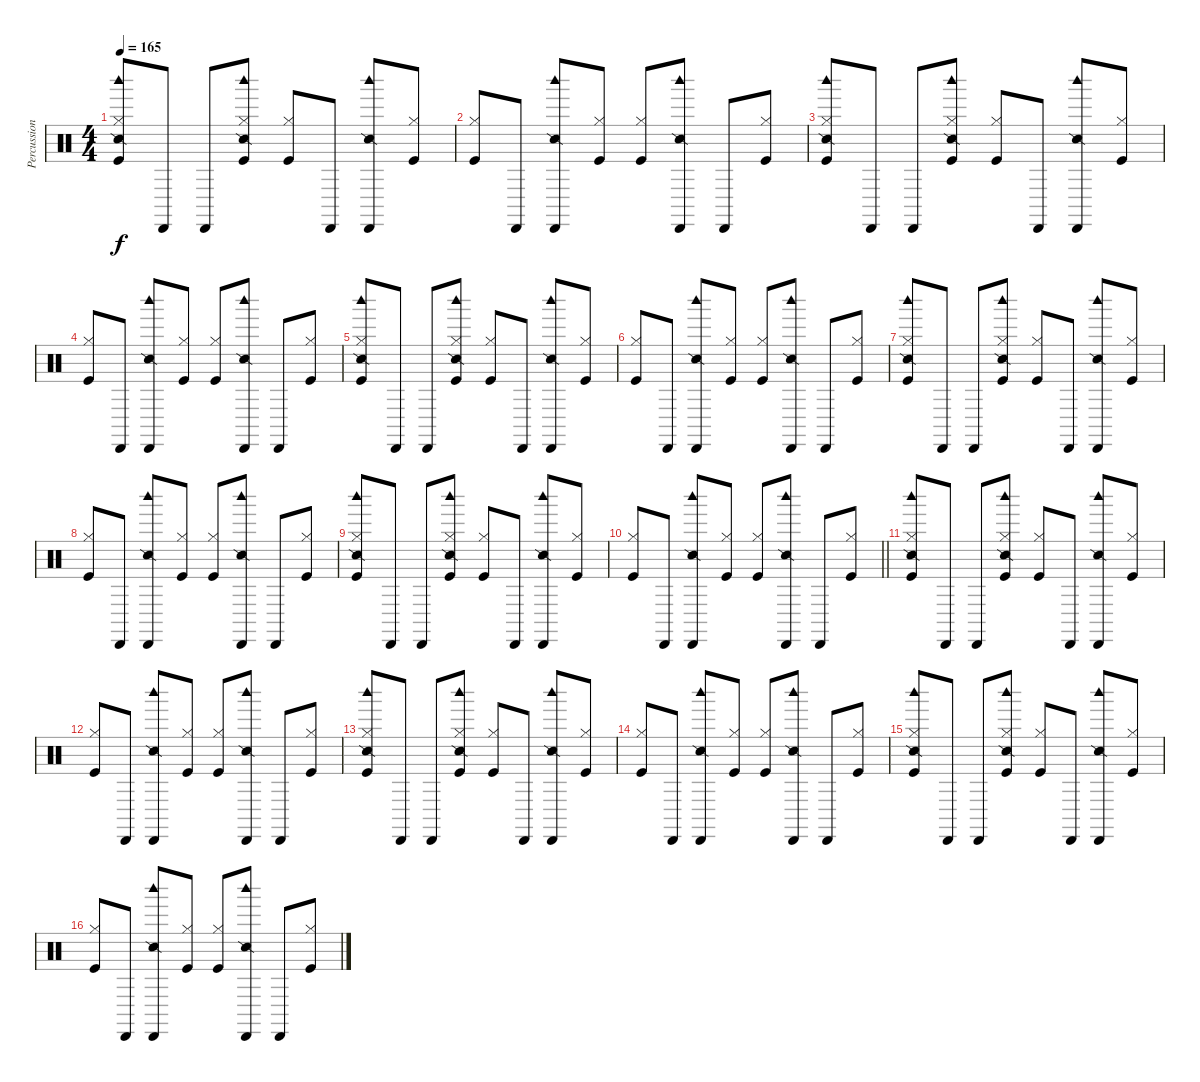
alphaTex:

\track ("Percussion" "Percussion") {instrument percussion}
\staff {score}
\articulation defaults
\ts (4 4)
\tempo 165
\clef neutral
\ks c
("Snare (side stick) 2" "Hi-Hat (closed)" "Woodblock high (hit)" "Kick (hit)").8{dy f} "Cabasa (hit)".8 "Cabasa (hit)".8 ("Snare (side stick) 2" "Hi-Hat (closed)" "Woodblock high (hit)" "Kick (hit)").8 ("Hi-Hat (closed)" "Kick (hit)").8 "Cabasa (hit)".8 ("Snare (side stick) 2" "Cabasa (hit)" "Woodblock high (hit)").8 ("Hi-Hat (closed)" "Kick (hit)").8 |
("Hi-Hat (closed)" "Kick (hit)").8 "Cabasa (hit)".8 ("Snare (side stick) 2" "Cabasa (hit)" "Woodblock high (hit)").8 ("Hi-Hat (closed)" "Kick (hit)").8 ("Hi-Hat (closed)" "Kick (hit)").8 ("Snare (side stick) 2" "Cabasa (hit)" "Woodblock high (hit)").8 "Cabasa (hit)".8 ("Hi-Hat (closed)" "Kick (hit)").8 |
("Snare (side stick) 2" "Hi-Hat (closed)" "Woodblock high (hit)" "Kick (hit)").8 "Cabasa (hit)".8 "Cabasa (hit)".8 ("Snare (side stick) 2" "Hi-Hat (closed)" "Woodblock high (hit)" "Kick (hit)").8 ("Hi-Hat (closed)" "Kick (hit)").8 "Cabasa (hit)".8 ("Snare (side stick) 2" "Cabasa (hit)" "Woodblock high (hit)").8 ("Hi-Hat (closed)" "Kick (hit)").8 |
("Hi-Hat (closed)" "Kick (hit)").8 "Cabasa (hit)".8 ("Snare (side stick) 2" "Cabasa (hit)" "Woodblock high (hit)").8 ("Hi-Hat (closed)" "Kick (hit)").8 ("Hi-Hat (closed)" "Kick (hit)").8 ("Snare (side stick) 2" "Cabasa (hit)" "Woodblock high (hit)").8 "Cabasa (hit)".8 ("Hi-Hat (closed)" "Kick (hit)").8 |
("Snare (side stick) 2" "Hi-Hat (closed)" "Woodblock high (hit)" "Kick (hit)").8 "Cabasa (hit)".8 "Cabasa (hit)".8 ("Snare (side stick) 2" "Hi-Hat (closed)" "Woodblock high (hit)" "Kick (hit)").8 ("Hi-Hat (closed)" "Kick (hit)").8 "Cabasa (hit)".8 ("Snare (side stick) 2" "Cabasa (hit)" "Woodblock high (hit)").8 ("Hi-Hat (closed)" "Kick (hit)").8 |
("Hi-Hat (closed)" "Kick (hit)").8 "Cabasa (hit)".8 ("Snare (side stick) 2" "Cabasa (hit)" "Woodblock high (hit)").8 ("Hi-Hat (closed)" "Kick (hit)").8 ("Hi-Hat (closed)" "Kick (hit)").8 ("Snare (side stick) 2" "Cabasa (hit)" "Woodblock high (hit)").8 "Cabasa (hit)".8 ("Hi-Hat (closed)" "Kick (hit)").8 |
("Snare (side stick) 2" "Hi-Hat (closed)" "Woodblock high (hit)" "Kick (hit)").8 "Cabasa (hit)".8 "Cabasa (hit)".8 ("Snare (side stick) 2" "Hi-Hat (closed)" "Woodblock high (hit)" "Kick (hit)").8 ("Hi-Hat (closed)" "Kick (hit)").8 "Cabasa (hit)".8 ("Snare (side stick) 2" "Cabasa (hit)" "Woodblock high (hit)").8 ("Hi-Hat (closed)" "Kick (hit)").8 |
("Hi-Hat (closed)" "Kick (hit)").8 "Cabasa (hit)".8 ("Snare (side stick) 2" "Cabasa (hit)" "Woodblock high (hit)").8 ("Hi-Hat (closed)" "Kick (hit)").8 ("Hi-Hat (closed)" "Kick (hit)").8 ("Snare (side stick) 2" "Cabasa (hit)" "Woodblock high (hit)").8 "Cabasa (hit)".8 ("Hi-Hat (closed)" "Kick (hit)").8 |
("Snare (side stick) 2" "Hi-Hat (closed)" "Woodblock high (hit)" "Kick (hit)").8 "Cabasa (hit)".8 "Cabasa (hit)".8 ("Snare (side stick) 2" "Hi-Hat (closed)" "Woodblock high (hit)" "Kick (hit)").8 ("Hi-Hat (closed)" "Kick (hit)").8 "Cabasa (hit)".8 ("Snare (side stick) 2" "Cabasa (hit)" "Woodblock high (hit)").8 ("Hi-Hat (closed)" "Kick (hit)").8 |
\barLineRight lightlight
("Hi-Hat (closed)" "Kick (hit)").8 "Cabasa (hit)".8 ("Snare (side stick) 2" "Cabasa (hit)" "Woodblock high (hit)").8 ("Hi-Hat (closed)" "Kick (hit)").8 ("Hi-Hat (closed)" "Kick (hit)").8 ("Snare (side stick) 2" "Cabasa (hit)" "Woodblock high (hit)").8 "Cabasa (hit)".8 ("Hi-Hat (closed)" "Kick (hit)").8 |
("Snare (side stick) 2" "Hi-Hat (closed)" "Woodblock high (hit)" "Kick (hit)").8 "Cabasa (hit)".8 "Cabasa (hit)".8 ("Snare (side stick) 2" "Hi-Hat (closed)" "Woodblock high (hit)" "Kick (hit)").8 ("Hi-Hat (closed)" "Kick (hit)").8 "Cabasa (hit)".8 ("Snare (side stick) 2" "Cabasa (hit)" "Woodblock high (hit)").8 ("Hi-Hat (closed)" "Kick (hit)").8 |
("Hi-Hat (closed)" "Kick (hit)").8 "Cabasa (hit)".8 ("Snare (side stick) 2" "Cabasa (hit)" "Woodblock high (hit)").8 ("Hi-Hat (closed)" "Kick (hit)").8 ("Hi-Hat (closed)" "Kick (hit)").8 ("Snare (side stick) 2" "Cabasa (hit)" "Woodblock high (hit)").8 "Cabasa (hit)".8 ("Hi-Hat (closed)" "Kick (hit)").8 |
("Snare (side stick) 2" "Hi-Hat (closed)" "Woodblock high (hit)" "Kick (hit)").8 "Cabasa (hit)".8 "Cabasa (hit)".8 ("Snare (side stick) 2" "Hi-Hat (closed)" "Woodblock high (hit)" "Kick (hit)").8 ("Hi-Hat (closed)" "Kick (hit)").8 "Cabasa (hit)".8 ("Snare (side stick) 2" "Cabasa (hit)" "Woodblock high (hit)").8 ("Hi-Hat (closed)" "Kick (hit)").8 |
("Hi-Hat (closed)" "Kick (hit)").8 "Cabasa (hit)".8 ("Snare (side stick) 2" "Cabasa (hit)" "Woodblock high (hit)").8 ("Hi-Hat (closed)" "Kick (hit)").8 ("Hi-Hat (closed)" "Kick (hit)").8 ("Snare (side stick) 2" "Cabasa (hit)" "Woodblock high (hit)").8 "Cabasa (hit)".8 ("Hi-Hat (closed)" "Kick (hit)").8 |
("Snare (side stick) 2" "Hi-Hat (closed)" "Woodblock high (hit)" "Kick (hit)").8 "Cabasa (hit)".8 "Cabasa (hit)".8 ("Snare (side stick) 2" "Hi-Hat (closed)" "Woodblock high (hit)" "Kick (hit)").8 ("Hi-Hat (closed)" "Kick (hit)").8 "Cabasa (hit)".8 ("Snare (side stick) 2" "Cabasa (hit)" "Woodblock high (hit)").8 ("Hi-Hat (closed)" "Kick (hit)").8 |
("Hi-Hat (closed)" "Kick (hit)").8 "Cabasa (hit)".8 ("Snare (side stick) 2" "Cabasa (hit)" "Woodblock high (hit)").8 ("Hi-Hat (closed)" "Kick (hit)").8 ("Hi-Hat (closed)" "Kick (hit)").8 ("Snare (side stick) 2" "Cabasa (hit)" "Woodblock high (hit)").8 "Cabasa (hit)".8 ("Hi-Hat (closed)" "Kick (hit)").8
